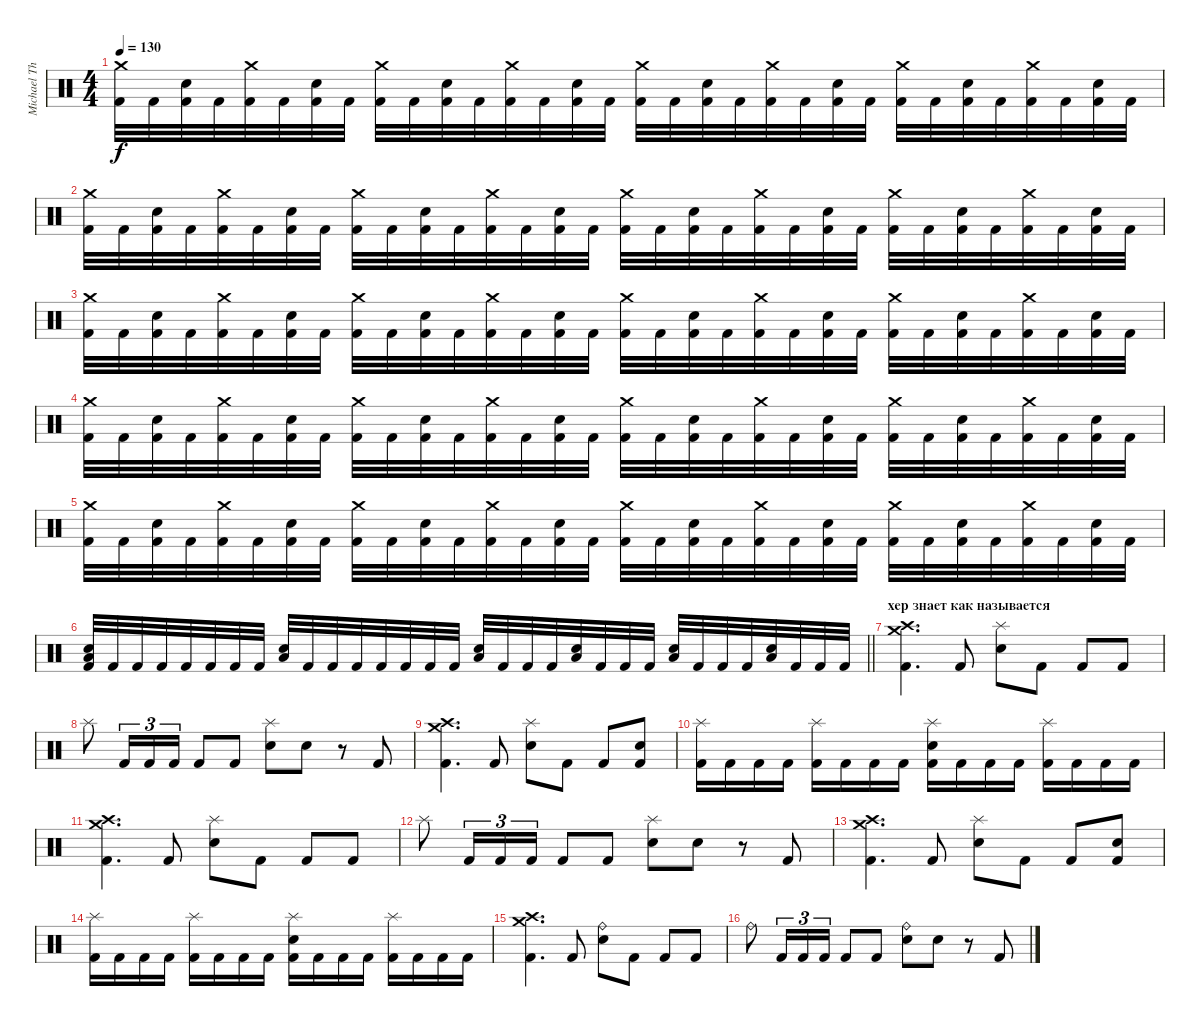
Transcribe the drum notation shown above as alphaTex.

\track ("Michael Thomas" "Michael Th") {instrument percussion}
\staff {score}
\articulation defaults
\ts (4 4)
\tempo 130
\clef neutral
\ks c
("Crash medium (hit)" "Kick (hit) 2").32{dy f} "Kick (hit) 2".32 ("Electric Snare (hit)" "Kick (hit) 2").32 "Kick (hit) 2".32 ("Crash medium (hit)" "Kick (hit) 2").32 "Kick (hit) 2".32 ("Electric Snare (hit)" "Kick (hit) 2").32 "Kick (hit) 2".32 ("Crash medium (hit)" "Kick (hit) 2").32 "Kick (hit) 2".32 ("Electric Snare (hit)" "Kick (hit) 2").32 "Kick (hit) 2".32 ("Crash medium (hit)" "Kick (hit) 2").32 "Kick (hit) 2".32 ("Electric Snare (hit)" "Kick (hit) 2").32 "Kick (hit) 2".32 ("Crash medium (hit)" "Kick (hit) 2").32 "Kick (hit) 2".32 ("Electric Snare (hit)" "Kick (hit) 2").32 "Kick (hit) 2".32 ("Crash medium (hit)" "Kick (hit) 2").32 "Kick (hit) 2".32 ("Electric Snare (hit)" "Kick (hit) 2").32 "Kick (hit) 2".32 ("Crash medium (hit)" "Kick (hit) 2").32 "Kick (hit) 2".32 ("Electric Snare (hit)" "Kick (hit) 2").32 "Kick (hit) 2".32 ("Crash medium (hit)" "Kick (hit) 2").32 "Kick (hit) 2".32 ("Electric Snare (hit)" "Kick (hit) 2").32 "Kick (hit) 2".32 |
("Crash medium (hit)" "Kick (hit) 2").32 "Kick (hit) 2".32 ("Electric Snare (hit)" "Kick (hit) 2").32 "Kick (hit) 2".32 ("Crash medium (hit)" "Kick (hit) 2").32 "Kick (hit) 2".32 ("Electric Snare (hit)" "Kick (hit) 2").32 "Kick (hit) 2".32 ("Crash medium (hit)" "Kick (hit) 2").32 "Kick (hit) 2".32 ("Electric Snare (hit)" "Kick (hit) 2").32 "Kick (hit) 2".32 ("Crash medium (hit)" "Kick (hit) 2").32 "Kick (hit) 2".32 ("Electric Snare (hit)" "Kick (hit) 2").32 "Kick (hit) 2".32 ("Crash medium (hit)" "Kick (hit) 2").32 "Kick (hit) 2".32 ("Electric Snare (hit)" "Kick (hit) 2").32 "Kick (hit) 2".32 ("Crash medium (hit)" "Kick (hit) 2").32 "Kick (hit) 2".32 ("Electric Snare (hit)" "Kick (hit) 2").32 "Kick (hit) 2".32 ("Crash medium (hit)" "Kick (hit) 2").32 "Kick (hit) 2".32 ("Electric Snare (hit)" "Kick (hit) 2").32 "Kick (hit) 2".32 ("Crash medium (hit)" "Kick (hit) 2").32 "Kick (hit) 2".32 ("Electric Snare (hit)" "Kick (hit) 2").32 "Kick (hit) 2".32 |
("Crash medium (hit)" "Kick (hit) 2").32 "Kick (hit) 2".32 ("Electric Snare (hit)" "Kick (hit) 2").32 "Kick (hit) 2".32 ("Crash medium (hit)" "Kick (hit) 2").32 "Kick (hit) 2".32 ("Electric Snare (hit)" "Kick (hit) 2").32 "Kick (hit) 2".32 ("Crash medium (hit)" "Kick (hit) 2").32 "Kick (hit) 2".32 ("Electric Snare (hit)" "Kick (hit) 2").32 "Kick (hit) 2".32 ("Crash medium (hit)" "Kick (hit) 2").32 "Kick (hit) 2".32 ("Electric Snare (hit)" "Kick (hit) 2").32 "Kick (hit) 2".32 ("Crash medium (hit)" "Kick (hit) 2").32 "Kick (hit) 2".32 ("Electric Snare (hit)" "Kick (hit) 2").32 "Kick (hit) 2".32 ("Crash medium (hit)" "Kick (hit) 2").32 "Kick (hit) 2".32 ("Electric Snare (hit)" "Kick (hit) 2").32 "Kick (hit) 2".32 ("Crash medium (hit)" "Kick (hit) 2").32 "Kick (hit) 2".32 ("Electric Snare (hit)" "Kick (hit) 2").32 "Kick (hit) 2".32 ("Crash medium (hit)" "Kick (hit) 2").32 "Kick (hit) 2".32 ("Electric Snare (hit)" "Kick (hit) 2").32 "Kick (hit) 2".32 |
("Crash medium (hit)" "Kick (hit) 2").32 "Kick (hit) 2".32 ("Electric Snare (hit)" "Kick (hit) 2").32 "Kick (hit) 2".32 ("Crash medium (hit)" "Kick (hit) 2").32 "Kick (hit) 2".32 ("Electric Snare (hit)" "Kick (hit) 2").32 "Kick (hit) 2".32 ("Crash medium (hit)" "Kick (hit) 2").32 "Kick (hit) 2".32 ("Electric Snare (hit)" "Kick (hit) 2").32 "Kick (hit) 2".32 ("Crash medium (hit)" "Kick (hit) 2").32 "Kick (hit) 2".32 ("Electric Snare (hit)" "Kick (hit) 2").32 "Kick (hit) 2".32 ("Crash medium (hit)" "Kick (hit) 2").32 "Kick (hit) 2".32 ("Electric Snare (hit)" "Kick (hit) 2").32 "Kick (hit) 2".32 ("Crash medium (hit)" "Kick (hit) 2").32 "Kick (hit) 2".32 ("Electric Snare (hit)" "Kick (hit) 2").32 "Kick (hit) 2".32 ("Crash medium (hit)" "Kick (hit) 2").32 "Kick (hit) 2".32 ("Electric Snare (hit)" "Kick (hit) 2").32 "Kick (hit) 2".32 ("Crash medium (hit)" "Kick (hit) 2").32 "Kick (hit) 2".32 ("Electric Snare (hit)" "Kick (hit) 2").32 "Kick (hit) 2".32 |
("Crash medium (hit)" "Kick (hit) 2").32 "Kick (hit) 2".32 ("Electric Snare (hit)" "Kick (hit) 2").32 "Kick (hit) 2".32 ("Crash medium (hit)" "Kick (hit) 2").32 "Kick (hit) 2".32 ("Electric Snare (hit)" "Kick (hit) 2").32 "Kick (hit) 2".32 ("Crash medium (hit)" "Kick (hit) 2").32 "Kick (hit) 2".32 ("Electric Snare (hit)" "Kick (hit) 2").32 "Kick (hit) 2".32 ("Crash medium (hit)" "Kick (hit) 2").32 "Kick (hit) 2".32 ("Electric Snare (hit)" "Kick (hit) 2").32 "Kick (hit) 2".32 ("Crash medium (hit)" "Kick (hit) 2").32 "Kick (hit) 2".32 ("Electric Snare (hit)" "Kick (hit) 2").32 "Kick (hit) 2".32 ("Crash medium (hit)" "Kick (hit) 2").32 "Kick (hit) 2".32 ("Electric Snare (hit)" "Kick (hit) 2").32 "Kick (hit) 2".32 ("Crash medium (hit)" "Kick (hit) 2").32 "Kick (hit) 2".32 ("Electric Snare (hit)" "Kick (hit) 2").32 "Kick (hit) 2".32 ("Crash medium (hit)" "Kick (hit) 2").32 "Kick (hit) 2".32 ("Electric Snare (hit)" "Kick (hit) 2").32 "Kick (hit) 2".32 |
\barLineRight lightlight
("Low Floor Tom (hit)" "Electric Snare (hit)" "Kick (hit) 2").32 "Kick (hit) 2".32 "Kick (hit) 2".32 "Kick (hit) 2".32 "Kick (hit) 2".32 "Kick (hit) 2".32 "Kick (hit) 2".32 "Kick (hit) 2".32 ("Low Floor Tom (hit)" "Electric Snare (hit)").32 "Kick (hit) 2".32 "Kick (hit) 2".32 "Kick (hit) 2".32 "Kick (hit) 2".32 "Kick (hit) 2".32 "Kick (hit) 2".32 "Kick (hit) 2".32 ("Low Floor Tom (hit)" "Electric Snare (hit)").32 "Kick (hit) 2".32 "Kick (hit) 2".32 "Kick (hit) 2".32 ("Low Floor Tom (hit)" "Electric Snare (hit)").32 "Kick (hit) 2".32 "Kick (hit) 2".32 "Kick (hit) 2".32 ("Low Floor Tom (hit)" "Electric Snare (hit)").32 "Kick (hit) 2".32 "Kick (hit) 2".32 "Kick (hit) 2".32 ("Low Floor Tom (hit)" "Electric Snare (hit)").32 "Kick (hit) 2".32 "Kick (hit) 2".32 "Kick (hit) 2".32 |
\section ("" "хер знает как называется")
("Crash medium (hit)" "Crash high (hit)" "Kick (hit) 2").4{d} "Kick (hit) 2".8 ("Splash (hit)" "Electric Snare (hit)").8 "Kick (hit) 2".8 "Kick (hit) 2".8 "Kick (hit) 2".8 |
"Splash (hit)".8 "Kick (hit) 2".16{tu (3 2)} "Kick (hit) 2".16{tu (3 2)} "Kick (hit) 2".16{tu (3 2)} "Kick (hit) 2".8 "Kick (hit) 2".8 ("Splash (hit)" "Electric Snare (hit)").8 "Electric Snare (hit)".8 r.8 "Kick (hit) 2".8 |
("Crash high (hit)" "Crash medium (hit)" "Kick (hit) 2").4{d} "Kick (hit) 2".8 ("Splash (hit)" "Electric Snare (hit)").8 "Kick (hit) 2".8 "Kick (hit) 2".8 ("Electric Snare (hit)" "Kick (hit) 2").8 |
("Splash (hit)" "Kick (hit) 2").16 "Kick (hit) 2".16 "Kick (hit) 2".16 "Kick (hit) 2".16 ("Splash (hit)" "Kick (hit) 2").16 "Kick (hit) 2".16 "Kick (hit) 2".16 "Kick (hit) 2".16 ("Splash (hit)" "Electric Snare (hit)" "Kick (hit) 2").16 "Kick (hit) 2".16 "Kick (hit) 2".16 "Kick (hit) 2".16 ("Splash (hit)" "Kick (hit) 2").16 "Kick (hit) 2".16 "Kick (hit) 2".16 "Kick (hit) 2".16 |
("Crash medium (hit)" "Crash high (hit)" "Kick (hit) 2").4{d} "Kick (hit) 2".8 ("Splash (hit)" "Electric Snare (hit)").8 "Kick (hit) 2".8 "Kick (hit) 2".8 "Kick (hit) 2".8 |
"Splash (hit)".8 "Kick (hit) 2".16{tu (3 2)} "Kick (hit) 2".16{tu (3 2)} "Kick (hit) 2".16{tu (3 2)} "Kick (hit) 2".8 "Kick (hit) 2".8 ("Splash (hit)" "Electric Snare (hit)").8 "Electric Snare (hit)".8 r.8 "Kick (hit) 2".8 |
("Crash high (hit)" "Crash medium (hit)" "Kick (hit) 2").4{d} "Kick (hit) 2".8 ("Splash (hit)" "Electric Snare (hit)").8 "Kick (hit) 2".8 "Kick (hit) 2".8 ("Electric Snare (hit)" "Kick (hit) 2").8 |
("Splash (hit)" "Kick (hit) 2").16 "Kick (hit) 2".16 "Kick (hit) 2".16 "Kick (hit) 2".16 ("Splash (hit)" "Kick (hit) 2").16 "Kick (hit) 2".16 "Kick (hit) 2".16 "Kick (hit) 2".16 ("Splash (hit)" "Electric Snare (hit)" "Kick (hit) 2").16 "Kick (hit) 2".16 "Kick (hit) 2".16 "Kick (hit) 2".16 ("Splash (hit)" "Kick (hit) 2").16 "Kick (hit) 2".16 "Kick (hit) 2".16 "Kick (hit) 2".16 |
("Crash medium (hit)" "Crash high (hit)" "Kick (hit) 2").4{d} "Kick (hit) 2".8 ("Ride (bell)" "Electric Snare (hit)").8 "Kick (hit) 2".8 "Kick (hit) 2".8 "Kick (hit) 2".8 |
"Ride (bell)".8 "Kick (hit) 2".16{tu (3 2)} "Kick (hit) 2".16{tu (3 2)} "Kick (hit) 2".16{tu (3 2)} "Kick (hit) 2".8 "Kick (hit) 2".8 ("Ride (bell)" "Electric Snare (hit)").8 "Electric Snare (hit)".8 r.8 "Kick (hit) 2".8
